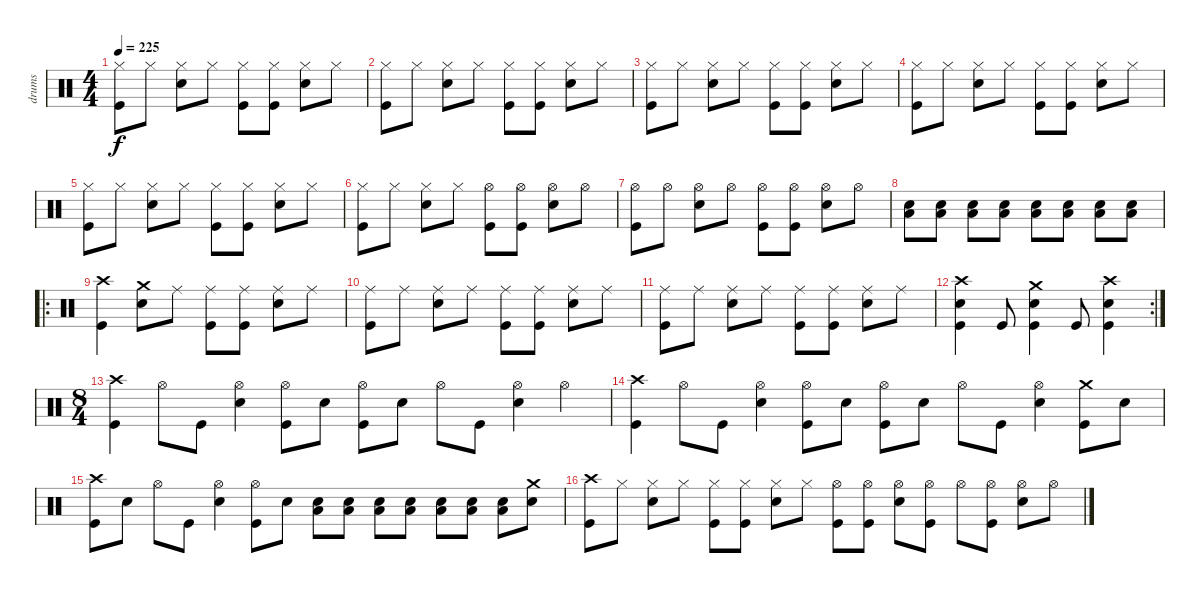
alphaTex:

\track ("drums" "drums") {instrument percussion}
\staff {score}
\articulation defaults
\ts (4 4)
\tempo 225
\clef neutral
\ks c
("Hi-Hat (closed)" "Kick (hit)").8{dy f} "Hi-Hat (closed)".8 ("Hi-Hat (closed)" "Snare (hit) 2").8 "Hi-Hat (closed)".8 ("Hi-Hat (closed)" "Kick (hit)").8 ("Hi-Hat (closed)" "Kick (hit)").8 ("Hi-Hat (closed)" "Snare (hit) 2").8 "Hi-Hat (closed)".8 |
("Hi-Hat (closed)" "Kick (hit)").8 "Hi-Hat (closed)".8 ("Hi-Hat (closed)" "Snare (hit) 2").8 "Hi-Hat (closed)".8 ("Hi-Hat (closed)" "Kick (hit)").8 ("Hi-Hat (closed)" "Kick (hit)").8 ("Hi-Hat (closed)" "Snare (hit) 2").8 "Hi-Hat (closed)".8 |
("Hi-Hat (closed)" "Kick (hit)").8 "Hi-Hat (closed)".8 ("Hi-Hat (closed)" "Snare (hit) 2").8 "Hi-Hat (closed)".8 ("Hi-Hat (closed)" "Kick (hit)").8 ("Hi-Hat (closed)" "Kick (hit)").8 ("Hi-Hat (closed)" "Snare (hit) 2").8 "Hi-Hat (closed)".8 |
("Hi-Hat (closed)" "Kick (hit)").8 "Hi-Hat (closed)".8 ("Hi-Hat (closed)" "Snare (hit) 2").8 "Hi-Hat (closed)".8 ("Hi-Hat (closed)" "Kick (hit)").8 ("Hi-Hat (closed)" "Kick (hit)").8 ("Hi-Hat (closed)" "Snare (hit) 2").8 "Hi-Hat (closed)".8 |
("Hi-Hat (closed)" "Kick (hit)").8 "Hi-Hat (closed)".8 ("Hi-Hat (closed)" "Snare (hit) 2").8 "Hi-Hat (closed)".8 ("Hi-Hat (closed)" "Kick (hit)").8 ("Hi-Hat (closed)" "Kick (hit)").8 ("Hi-Hat (closed)" "Snare (hit) 2").8 "Hi-Hat (closed)".8 |
("Hi-Hat (closed)" "Kick (hit)").8 "Hi-Hat (closed)".8 ("Hi-Hat (closed)" "Snare (hit) 2").8 "Hi-Hat (closed)".8 ("Hi-Hat (open)" "Kick (hit)").8 ("Hi-Hat (open)" "Kick (hit)").8 ("Hi-Hat (open)" "Snare (hit) 2").8 "Hi-Hat (open)".8 |
("Hi-Hat (open)" "Kick (hit)").8 "Hi-Hat (open)".8 ("Hi-Hat (open)" "Snare (hit) 2").8 "Hi-Hat (open)".8 ("Hi-Hat (open)" "Kick (hit)").8 ("Hi-Hat (open)" "Kick (hit)").8 ("Hi-Hat (open)" "Snare (hit) 2").8 "Hi-Hat (open)".8 |
("Snare (hit) 2" "Low Tom (hit)").8 ("Snare (hit) 2" "Low Tom (hit)").8 ("Snare (hit) 2" "Low Tom (hit)").8 ("Snare (hit) 2" "Low Tom (hit)").8 ("Snare (hit) 2" "Low Tom (hit)").8 ("Snare (hit) 2" "Low Tom (hit)").8 ("Snare (hit) 2" "Low Tom (hit)").8 ("Snare (hit) 2" "Low Tom (hit)").8 |
\ro
("Crash high (hit)" "Kick (hit)").4 ("Crash medium (hit)" "Snare (hit) 2").8 "Ride (middle)".8 ("Ride (middle)" "Kick (hit)").8 ("Ride (middle)" "Kick (hit)").8 ("Ride (middle)" "Snare (hit) 2").8 "Ride (middle)".8 |
("Ride (middle)" "Kick (hit)").8 "Ride (middle)".8 ("Ride (middle)" "Snare (hit) 2").8 "Ride (middle)".8 ("Ride (middle)" "Kick (hit)").8 ("Ride (middle)" "Kick (hit)").8 ("Ride (middle)" "Snare (hit) 2").8 "Ride (middle)".8 |
("Ride (middle)" "Kick (hit)").8 "Ride (middle)".8 ("Ride (middle)" "Snare (hit) 2").8 "Ride (middle)".8 ("Ride (middle)" "Kick (hit)").8 ("Ride (middle)" "Kick (hit)").8 ("Ride (middle)" "Snare (hit) 2").8 "Ride (middle)".8 |
\rc 2
("Crash high (hit)" "Snare (hit) 2" "Kick (hit)").4 "Kick (hit)".8 ("Crash medium (hit)" "Snare (hit) 2" "Kick (hit)").4 "Kick (hit)".8 ("Crash high (hit)" "Snare (hit) 2" "Kick (hit)").4 |
\ts (8 4)
("Crash high (hit)" "Kick (hit)").4 "Hi-Hat (open)".8 "Kick (hit)".8 ("Hi-Hat (open)" "Snare (hit) 2").4 ("Hi-Hat (open)" "Kick (hit)").8 "Snare (hit) 2".8 ("Hi-Hat (open)" "Kick (hit)").8 "Snare (hit) 2".8 "Hi-Hat (open)".8 "Kick (hit)".8 ("Hi-Hat (open)" "Snare (hit) 2").4 "Hi-Hat (open)".4 |
("Crash high (hit)" "Kick (hit)").4 "Hi-Hat (open)".8 "Kick (hit)".8 ("Hi-Hat (open)" "Snare (hit) 2").4 ("Hi-Hat (open)" "Kick (hit)").8 "Snare (hit) 2".8 ("Hi-Hat (open)" "Kick (hit)").8 "Snare (hit) 2".8 "Hi-Hat (open)".8 "Kick (hit)".8 ("Hi-Hat (open)" "Snare (hit) 2").4 ("Crash medium (hit)" "Kick (hit)").8 "Snare (hit) 2".8 |
("Crash high (hit)" "Kick (hit)").8 "Snare (hit) 2".8 "Hi-Hat (open)".8 "Kick (hit)".8 ("Hi-Hat (open)" "Snare (hit) 2").4 ("Hi-Hat (open)" "Kick (hit)").8 "Snare (hit) 2".8 ("Snare (hit) 2" "Low Tom (hit)").8 ("Snare (hit) 2" "Low Tom (hit)").8 ("Snare (hit) 2" "Low Tom (hit)").8 ("Snare (hit) 2" "Low Tom (hit)").8 ("Snare (hit) 2" "Low Tom (hit)").8 ("Snare (hit) 2" "Low Tom (hit)").8 ("Snare (hit) 2" "Low Tom (hit)").8 ("Snare (hit) 2" "Crash medium (hit)").8 |
("Crash high (hit)" "Kick (hit)").8 "Hi-Hat (closed)".8 ("Hi-Hat (closed)" "Snare (hit) 2").8 "Hi-Hat (closed)".8 ("Hi-Hat (closed)" "Kick (hit)").8 ("Hi-Hat (closed)" "Kick (hit)").8 ("Hi-Hat (closed)" "Snare (hit) 2").8 "Hi-Hat (closed)".8 ("Hi-Hat (open)" "Kick (hit)").8 ("Hi-Hat (open)" "Kick (hit)").8 ("Hi-Hat (open)" "Snare (hit) 2").8 ("Hi-Hat (open)" "Kick (hit)").8 "Hi-Hat (open)".8 ("Hi-Hat (open)" "Kick (hit)").8 ("Hi-Hat (open)" "Snare (hit) 2").8 "Hi-Hat (open)".8
